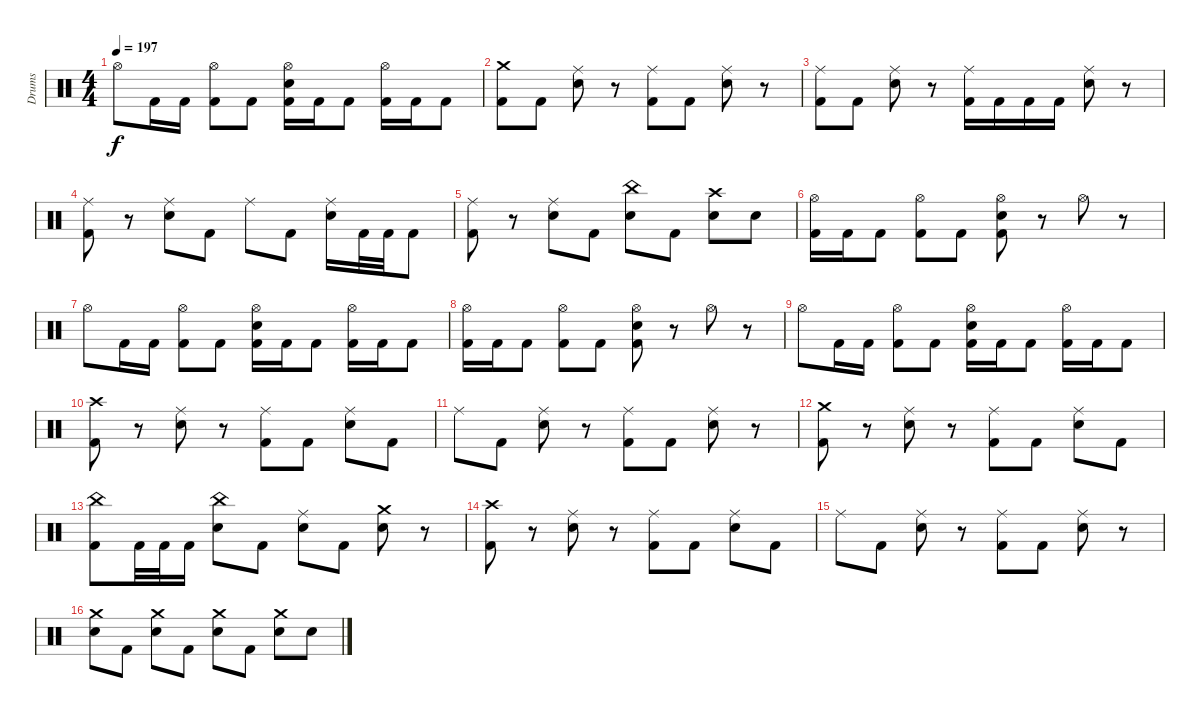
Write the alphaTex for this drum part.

\track ("Drums" "Drums") {instrument percussion}
\staff {score}
\articulation defaults
\ts (4 4)
\tempo 197
\clef neutral
\ks c "Hi-Hat (open)".8{dy f} "Kick (hit) 2".16 "Kick (hit) 2".16
("Hi-Hat (open)" "Kick (hit) 2").8 "Kick (hit) 2".8 ("Hi-Hat (open)" "Electric Snare (hit)" "Kick (hit) 2").16 "Kick (hit) 2".16 "Kick (hit) 2".8 ("Hi-Hat (open)" "Kick (hit) 2").16 "Kick (hit) 2".16 "Kick (hit) 2".8 |
("Crash medium (hit)" "Kick (hit) 2").8 "Kick (hit) 2".8 ("Ride (middle)" "Electric Snare (hit)").8 r.8 ("Ride (middle)" "Kick (hit) 2").8 "Kick (hit) 2".8 ("Ride (middle)" "Electric Snare (hit)").8 r.8 |
("Ride (middle)" "Kick (hit) 2").8 "Kick (hit) 2".8 ("Ride (middle)" "Electric Snare (hit)").8 r.8 ("Ride (middle)" "Kick (hit) 2").16 "Kick (hit) 2".16 "Kick (hit) 2".16 "Kick (hit) 2".16 ("Ride (middle)" "Electric Snare (hit)").8 r.8 |
("Ride (middle)" "Kick (hit) 2").8 r.8 ("Ride (middle)" "Electric Snare (hit)").8 "Kick (hit) 2".8 "Ride (middle)".8 "Kick (hit) 2".8 ("Ride (middle)" "Electric Snare (hit)").16 "Kick (hit) 2".32 "Kick (hit) 2".32 "Kick (hit) 2".8 |
("Ride (middle)" "Kick (hit) 2").8 r.8 ("Ride (middle)" "Electric Snare (hit)").8 "Kick (hit) 2".8 ("China (hit)" "Electric Snare (hit)").8 "Kick (hit) 2".8 ("Crash high (hit)" "Electric Snare (hit)").8 "Electric Snare (hit)".8 |
("Hi-Hat (open)" "Kick (hit) 2").16 "Kick (hit) 2".16 "Kick (hit) 2".8 ("Hi-Hat (open)" "Kick (hit) 2").8 "Kick (hit) 2".8 ("Hi-Hat (open)" "Electric Snare (hit)" "Kick (hit) 2").8 r.8 "Hi-Hat (open)".8 r.8 |
"Hi-Hat (open)".8 "Kick (hit) 2".16 "Kick (hit) 2".16 ("Hi-Hat (open)" "Kick (hit) 2").8 "Kick (hit) 2".8 ("Hi-Hat (open)" "Electric Snare (hit)" "Kick (hit) 2").16 "Kick (hit) 2".16 "Kick (hit) 2".8 ("Hi-Hat (open)" "Kick (hit) 2").16 "Kick (hit) 2".16 "Kick (hit) 2".8 |
("Hi-Hat (open)" "Kick (hit) 2").16 "Kick (hit) 2".16 "Kick (hit) 2".8 ("Hi-Hat (open)" "Kick (hit) 2").8 "Kick (hit) 2".8 ("Hi-Hat (open)" "Electric Snare (hit)" "Kick (hit) 2").8 r.8 "Hi-Hat (open)".8 r.8 |
"Hi-Hat (open)".8 "Kick (hit) 2".16 "Kick (hit) 2".16 ("Hi-Hat (open)" "Kick (hit) 2").8 "Kick (hit) 2".8 ("Hi-Hat (open)" "Electric Snare (hit)" "Kick (hit) 2").16 "Kick (hit) 2".16 "Kick (hit) 2".8 ("Hi-Hat (open)" "Kick (hit) 2").16 "Kick (hit) 2".16 "Kick (hit) 2".8 |
("Crash high (hit)" "Kick (hit) 2").8 r.8 ("Ride (middle)" "Electric Snare (hit)").8 r.8 ("Ride (middle)" "Kick (hit) 2").8 "Kick (hit) 2".8 ("Ride (middle)" "Electric Snare (hit)").8 "Kick (hit) 2".8 |
"Ride (middle)".8 "Kick (hit) 2".8 ("Ride (middle)" "Electric Snare (hit)").8 r.8 ("Ride (middle)" "Kick (hit) 2").8 "Kick (hit) 2".8 ("Ride (middle)" "Electric Snare (hit)").8 r.8 |
("Crash medium (hit)" "Kick (hit) 2").8 r.8 ("Ride (middle)" "Electric Snare (hit)").8 r.8 ("Ride (middle)" "Kick (hit) 2").8 "Kick (hit) 2".8 ("Ride (middle)" "Electric Snare (hit)").8 "Kick (hit) 2".8 |
("China (hit)" "Kick (hit) 2").8 "Kick (hit) 2".32 "Kick (hit) 2".32 "Kick (hit) 2".16 ("China (hit)" "Electric Snare (hit)").8 "Kick (hit) 2".8 ("Ride (middle)" "Electric Snare (hit)").8 "Kick (hit) 2".8 ("Crash medium (hit)" "Electric Snare (hit)").8 r.8 |
("Crash high (hit)" "Kick (hit) 2").8 r.8 ("Ride (middle)" "Electric Snare (hit)").8 r.8 ("Ride (middle)" "Kick (hit) 2").8 "Kick (hit) 2".8 ("Ride (middle)" "Electric Snare (hit)").8 "Kick (hit) 2".8 |
"Ride (middle)".8 "Kick (hit) 2".8 ("Ride (middle)" "Electric Snare (hit)").8 r.8 ("Ride (middle)" "Kick (hit) 2").8 "Kick (hit) 2".8 ("Ride (middle)" "Electric Snare (hit)").8 r.8 |
("Crash medium (hit)" "Electric Snare (hit)").8 "Kick (hit) 2".8 ("Crash medium (hit)" "Electric Snare (hit)").8 "Kick (hit) 2".8 ("Crash medium (hit)" "Electric Snare (hit)").8 "Kick (hit) 2".8 ("Crash medium (hit)" "Electric Snare (hit)").8 "Electric Snare (hit)".8
